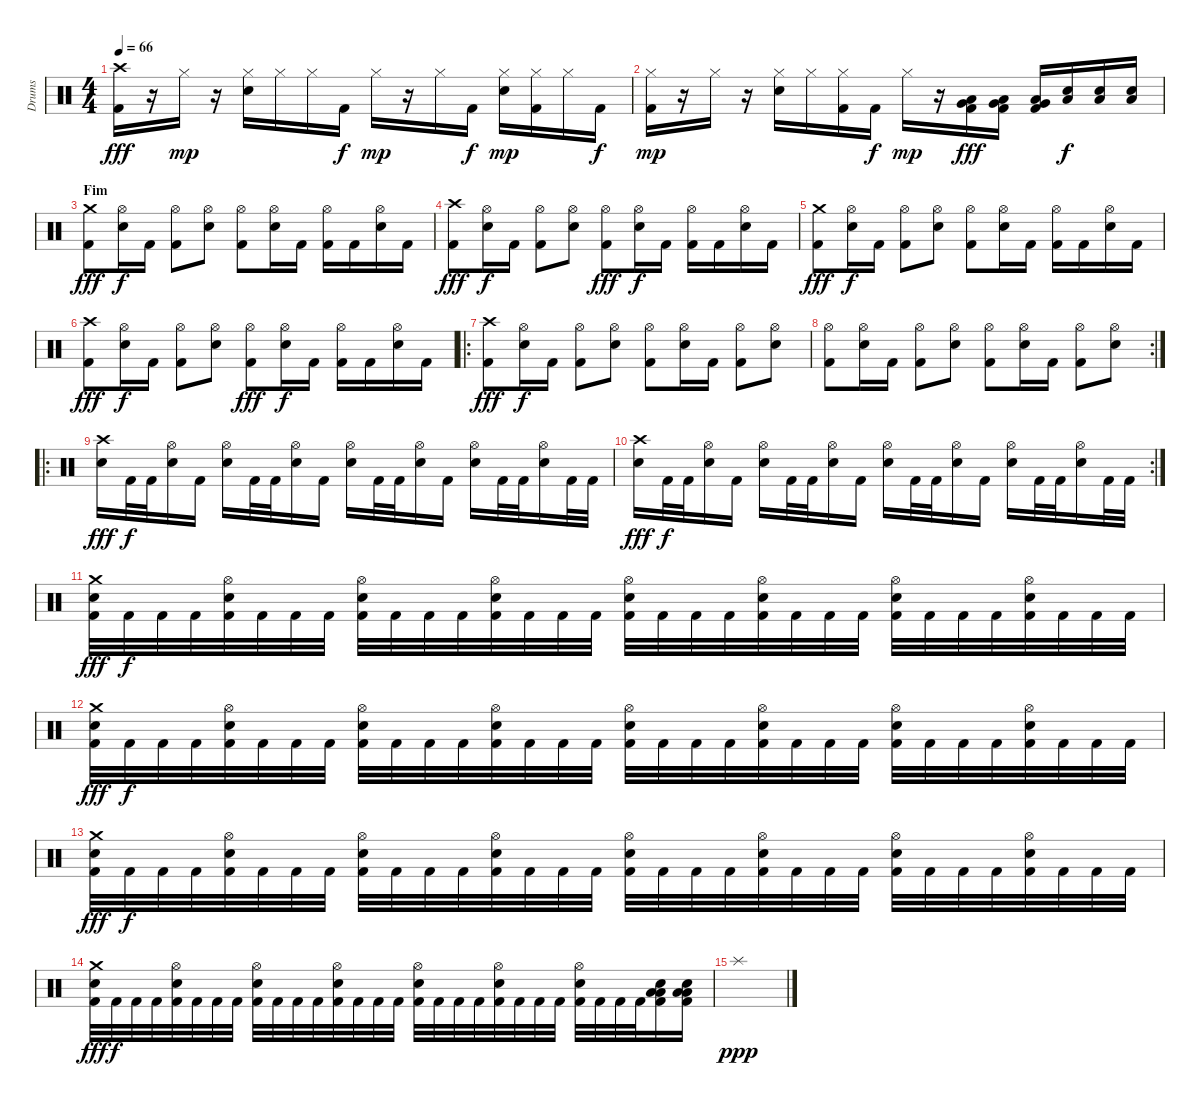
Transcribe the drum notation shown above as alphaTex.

\track ("Drums" "Drums") {instrument percussion}
\staff {score}
\articulation defaults
\ts (4 4)
\tempo 66
\clef neutral
\ks c
("Kick (hit) 2" "Crash high (hit)").16{dy fff} r.16 "Hi-Hat (closed)".16{dy mp} r.16 ("Electric Snare (hit)" "Hi-Hat (closed)").16 "Hi-Hat (closed)".16 "Hi-Hat (closed)".16 "Kick (hit) 2".16{dy f} "Hi-Hat (closed)".16{dy mp} r.16 "Hi-Hat (closed)".16 "Kick (hit) 2".16{dy f} ("Electric Snare (hit)" "Hi-Hat (closed)").16{dy mp} ("Kick (hit) 2" "Hi-Hat (closed)").16 "Hi-Hat (closed)".16 "Kick (hit) 2".16{dy f} |
("Kick (hit) 2" "Hi-Hat (closed)").16{dy mp} r.16 "Hi-Hat (closed)".16 r.16 ("Electric Snare (hit)" "Hi-Hat (closed)").16 "Hi-Hat (closed)".16 ("Kick (hit) 2" "Hi-Hat (closed)").16 "Kick (hit) 2".16{dy f} "Hi-Hat (closed)".16{dy mp} r.16 ("Kick (hit) 2" "Very Low Tom (hit)" "Low Floor Tom (hit)").16{dy fff} ("Kick (hit) 2" "Very Low Tom (hit)" "Low Floor Tom (hit)").16 ("Kick (hit) 2" "Very Low Tom (hit)" "Low Floor Tom (hit)").16 ("Electric Snare (hit)" "Low Floor Tom (hit)").16{dy f} ("Electric Snare (hit)" "Low Floor Tom (hit)").16 ("Electric Snare (hit)" "Low Floor Tom (hit)").16 |
\section ("" "Fim")
("Kick (hit) 2" "Crash medium (hit)").8{dy fff} ("Electric Snare (hit)" "Hi-Hat (open)").16{dy f} "Kick (hit) 2".16 ("Kick (hit) 2" "Hi-Hat (open)").8 ("Electric Snare (hit)" "Hi-Hat (open)").8 ("Kick (hit) 2" "Hi-Hat (open)").8 ("Electric Snare (hit)" "Hi-Hat (open)").16 "Kick (hit) 2".16 ("Kick (hit) 2" "Hi-Hat (open)").16 "Kick (hit) 2".16 ("Electric Snare (hit)" "Hi-Hat (open)").16 "Kick (hit) 2".16 |
("Kick (hit) 2" "Crash high (hit)").8{dy fff} ("Electric Snare (hit)" "Hi-Hat (open)").16{dy f} "Kick (hit) 2".16 ("Kick (hit) 2" "Hi-Hat (open)").8 ("Electric Snare (hit)" "Hi-Hat (open)").8 ("Kick (hit) 2" "Hi-Hat (open)").8{dy fff} ("Electric Snare (hit)" "Hi-Hat (open)").16{dy f} "Kick (hit) 2".16 ("Kick (hit) 2" "Hi-Hat (open)").16 "Kick (hit) 2".16 ("Electric Snare (hit)" "Hi-Hat (open)").16 "Kick (hit) 2".16 |
("Kick (hit) 2" "Crash medium (hit)").8{dy fff} ("Electric Snare (hit)" "Hi-Hat (open)").16{dy f} "Kick (hit) 2".16 ("Kick (hit) 2" "Hi-Hat (open)").8 ("Electric Snare (hit)" "Hi-Hat (open)").8 ("Kick (hit) 2" "Hi-Hat (open)").8 ("Electric Snare (hit)" "Hi-Hat (open)").16 "Kick (hit) 2".16 ("Kick (hit) 2" "Hi-Hat (open)").16 "Kick (hit) 2".16 ("Electric Snare (hit)" "Hi-Hat (open)").16 "Kick (hit) 2".16 |
("Kick (hit) 2" "Crash high (hit)").8{dy fff} ("Electric Snare (hit)" "Hi-Hat (open)").16{dy f} "Kick (hit) 2".16 ("Kick (hit) 2" "Hi-Hat (open)").8 ("Electric Snare (hit)" "Hi-Hat (open)").8 ("Kick (hit) 2" "Hi-Hat (open)").8{dy fff} ("Electric Snare (hit)" "Hi-Hat (open)").16{dy f} "Kick (hit) 2".16 ("Kick (hit) 2" "Hi-Hat (open)").16 "Kick (hit) 2".16 ("Electric Snare (hit)" "Hi-Hat (open)").16 "Kick (hit) 2".16 |
\ro
("Kick (hit) 2" "Crash high (hit)").8{dy fff} ("Electric Snare (hit)" "Hi-Hat (open)").16{dy f} "Kick (hit) 2".16 ("Kick (hit) 2" "Hi-Hat (open)").8 ("Electric Snare (hit)" "Hi-Hat (open)").8 ("Kick (hit) 2" "Hi-Hat (open)").8 ("Electric Snare (hit)" "Hi-Hat (open)").16 "Kick (hit) 2".16 ("Kick (hit) 2" "Hi-Hat (open)").8 ("Electric Snare (hit)" "Hi-Hat (open)").8 |
\rc 2
("Kick (hit) 2" "Hi-Hat (open)").8 ("Electric Snare (hit)" "Hi-Hat (open)").16 "Kick (hit) 2".16 ("Kick (hit) 2" "Hi-Hat (open)").8 ("Electric Snare (hit)" "Hi-Hat (open)").8 ("Kick (hit) 2" "Hi-Hat (open)").8 ("Electric Snare (hit)" "Hi-Hat (open)").16 "Kick (hit) 2".16 ("Kick (hit) 2" "Hi-Hat (open)").8 ("Electric Snare (hit)" "Hi-Hat (open)").8 |
\ro
("Electric Snare (hit)" "Crash high (hit)").16{dy fff} "Kick (hit) 2".32{dy f} "Kick (hit) 2".32 ("Electric Snare (hit)" "Hi-Hat (open)").16 "Kick (hit) 2".16 ("Electric Snare (hit)" "Hi-Hat (open)").16 "Kick (hit) 2".32 "Kick (hit) 2".32 ("Electric Snare (hit)" "Hi-Hat (open)").16 "Kick (hit) 2".16 ("Electric Snare (hit)" "Hi-Hat (open)").16 "Kick (hit) 2".32 "Kick (hit) 2".32 ("Electric Snare (hit)" "Hi-Hat (open)").16 "Kick (hit) 2".16 ("Electric Snare (hit)" "Hi-Hat (open)").16 "Kick (hit) 2".32 "Kick (hit) 2".32 ("Electric Snare (hit)" "Hi-Hat (open)").16 "Kick (hit) 2".32 "Kick (hit) 2".32 |
\rc 2
("Electric Snare (hit)" "Crash high (hit)").16{dy fff} "Kick (hit) 2".32{dy f} "Kick (hit) 2".32 ("Electric Snare (hit)" "Hi-Hat (open)").16 "Kick (hit) 2".16 ("Electric Snare (hit)" "Hi-Hat (open)").16 "Kick (hit) 2".32 "Kick (hit) 2".32 ("Electric Snare (hit)" "Hi-Hat (open)").16 "Kick (hit) 2".16 ("Electric Snare (hit)" "Hi-Hat (open)").16 "Kick (hit) 2".32 "Kick (hit) 2".32 ("Electric Snare (hit)" "Hi-Hat (open)").16 "Kick (hit) 2".16 ("Electric Snare (hit)" "Hi-Hat (open)").16 "Kick (hit) 2".32 "Kick (hit) 2".32 ("Electric Snare (hit)" "Hi-Hat (open)").16 "Kick (hit) 2".32 "Kick (hit) 2".32 |
("Kick (hit) 2" "Electric Snare (hit)" "Crash medium (hit)").32{dy fff} "Kick (hit) 2".32{dy f} "Kick (hit) 2".32 "Kick (hit) 2".32 ("Kick (hit) 2" "Electric Snare (hit)" "Hi-Hat (open)").32 "Kick (hit) 2".32 "Kick (hit) 2".32 "Kick (hit) 2".32 ("Kick (hit) 2" "Electric Snare (hit)" "Hi-Hat (open)").32 "Kick (hit) 2".32 "Kick (hit) 2".32 "Kick (hit) 2".32 ("Kick (hit) 2" "Electric Snare (hit)" "Hi-Hat (open)").32 "Kick (hit) 2".32 "Kick (hit) 2".32 "Kick (hit) 2".32 ("Kick (hit) 2" "Electric Snare (hit)" "Hi-Hat (open)").32 "Kick (hit) 2".32 "Kick (hit) 2".32 "Kick (hit) 2".32 ("Kick (hit) 2" "Electric Snare (hit)" "Hi-Hat (open)").32 "Kick (hit) 2".32 "Kick (hit) 2".32 "Kick (hit) 2".32 ("Kick (hit) 2" "Electric Snare (hit)" "Hi-Hat (open)").32 "Kick (hit) 2".32 "Kick (hit) 2".32 "Kick (hit) 2".32 ("Kick (hit) 2" "Electric Snare (hit)" "Hi-Hat (open)").32 "Kick (hit) 2".32 "Kick (hit) 2".32 "Kick (hit) 2".32 |
("Kick (hit) 2" "Electric Snare (hit)" "Crash medium (hit)").32{dy fff} "Kick (hit) 2".32{dy f} "Kick (hit) 2".32 "Kick (hit) 2".32 ("Kick (hit) 2" "Electric Snare (hit)" "Hi-Hat (open)").32 "Kick (hit) 2".32 "Kick (hit) 2".32 "Kick (hit) 2".32 ("Kick (hit) 2" "Electric Snare (hit)" "Hi-Hat (open)").32 "Kick (hit) 2".32 "Kick (hit) 2".32 "Kick (hit) 2".32 ("Kick (hit) 2" "Electric Snare (hit)" "Hi-Hat (open)").32 "Kick (hit) 2".32 "Kick (hit) 2".32 "Kick (hit) 2".32 ("Kick (hit) 2" "Electric Snare (hit)" "Hi-Hat (open)").32 "Kick (hit) 2".32 "Kick (hit) 2".32 "Kick (hit) 2".32 ("Kick (hit) 2" "Electric Snare (hit)" "Hi-Hat (open)").32 "Kick (hit) 2".32 "Kick (hit) 2".32 "Kick (hit) 2".32 ("Kick (hit) 2" "Electric Snare (hit)" "Hi-Hat (open)").32 "Kick (hit) 2".32 "Kick (hit) 2".32 "Kick (hit) 2".32 ("Kick (hit) 2" "Electric Snare (hit)" "Hi-Hat (open)").32 "Kick (hit) 2".32 "Kick (hit) 2".32 "Kick (hit) 2".32 |
("Kick (hit) 2" "Electric Snare (hit)" "Crash medium (hit)").32{dy fff} "Kick (hit) 2".32{dy f} "Kick (hit) 2".32 "Kick (hit) 2".32 ("Kick (hit) 2" "Electric Snare (hit)" "Hi-Hat (open)").32 "Kick (hit) 2".32 "Kick (hit) 2".32 "Kick (hit) 2".32 ("Kick (hit) 2" "Electric Snare (hit)" "Hi-Hat (open)").32 "Kick (hit) 2".32 "Kick (hit) 2".32 "Kick (hit) 2".32 ("Kick (hit) 2" "Electric Snare (hit)" "Hi-Hat (open)").32 "Kick (hit) 2".32 "Kick (hit) 2".32 "Kick (hit) 2".32 ("Kick (hit) 2" "Electric Snare (hit)" "Hi-Hat (open)").32 "Kick (hit) 2".32 "Kick (hit) 2".32 "Kick (hit) 2".32 ("Kick (hit) 2" "Electric Snare (hit)" "Hi-Hat (open)").32 "Kick (hit) 2".32 "Kick (hit) 2".32 "Kick (hit) 2".32 ("Kick (hit) 2" "Electric Snare (hit)" "Hi-Hat (open)").32 "Kick (hit) 2".32 "Kick (hit) 2".32 "Kick (hit) 2".32 ("Kick (hit) 2" "Electric Snare (hit)" "Hi-Hat (open)").32 "Kick (hit) 2".32 "Kick (hit) 2".32 "Kick (hit) 2".32 |
("Kick (hit) 2" "Electric Snare (hit)" "Crash medium (hit)").32{dy fff} "Kick (hit) 2".32{dy f} "Kick (hit) 2".32 "Kick (hit) 2".32 ("Kick (hit) 2" "Electric Snare (hit)" "Hi-Hat (open)").32 "Kick (hit) 2".32 "Kick (hit) 2".32 "Kick (hit) 2".32 ("Kick (hit) 2" "Electric Snare (hit)" "Hi-Hat (open)").32 "Kick (hit) 2".32 "Kick (hit) 2".32 "Kick (hit) 2".32 ("Kick (hit) 2" "Electric Snare (hit)" "Hi-Hat (open)").32 "Kick (hit) 2".32 "Kick (hit) 2".32 "Kick (hit) 2".32 ("Kick (hit) 2" "Electric Snare (hit)" "Hi-Hat (open)").32 "Kick (hit) 2".32 "Kick (hit) 2".32 "Kick (hit) 2".32 ("Kick (hit) 2" "Electric Snare (hit)" "Hi-Hat (open)").32 "Kick (hit) 2".32 "Kick (hit) 2".32 "Kick (hit) 2".32 ("Kick (hit) 2" "Electric Snare (hit)" "Hi-Hat (open)").32 "Kick (hit) 2".32 "Kick (hit) 2".32 "Kick (hit) 2".32 ("Kick (hit) 2" "Electric Snare (hit)" "Low Floor Tom (hit)" "Low Floor Tom (hit)").16 ("Kick (hit) 2" "Electric Snare (hit)" "Low Floor Tom (hit)" "Low Floor Tom (hit)").16 |
"Splash (hit)".1{dy ppp}
